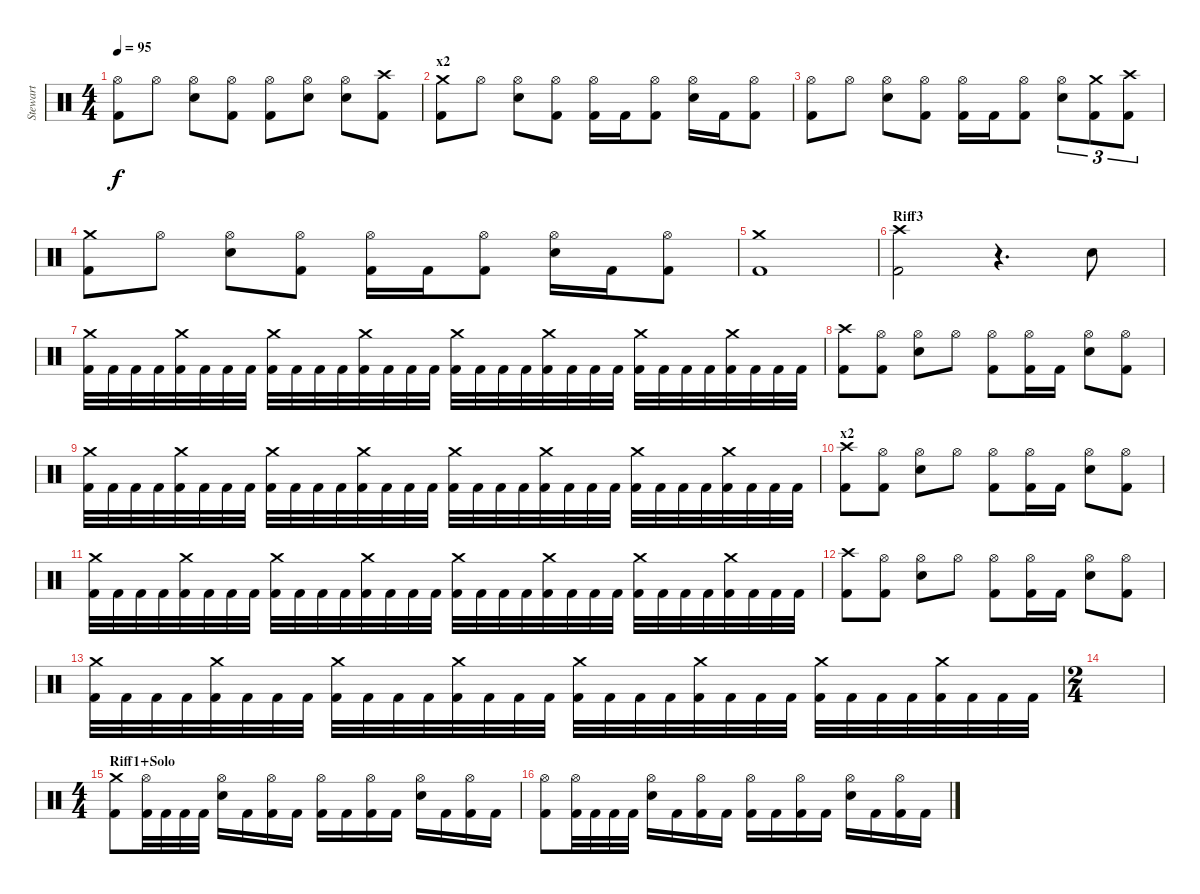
\track ("Stewart" "Stewart") {instrument percussion}
\staff {score}
\articulation defaults
\ts (4 4)
\tempo 95
\clef neutral
\ks c
("Hi-Hat (open)" "Kick (hit) 2").8{dy f} "Hi-Hat (open)".8 ("Hi-Hat (open)" "Electric Snare (hit)").8 ("Hi-Hat (open)" "Kick (hit) 2").8 ("Hi-Hat (open)" "Kick (hit) 2").8 ("Hi-Hat (open)" "Electric Snare (hit)").8 ("Hi-Hat (open)" "Electric Snare (hit)").8 ("Crash high (hit)" "Kick (hit) 2").8 |
\section ("" "x2")
("Crash medium (hit)" "Kick (hit) 2").8 "Hi-Hat (open)".8 ("Hi-Hat (open)" "Electric Snare (hit)").8 ("Hi-Hat (open)" "Kick (hit) 2").8 ("Hi-Hat (open)" "Kick (hit) 2").16 "Kick (hit) 2".16 ("Hi-Hat (open)" "Kick (hit) 2").8 ("Hi-Hat (open)" "Electric Snare (hit)").16 "Kick (hit) 2".16 ("Hi-Hat (open)" "Kick (hit) 2").8 |
("Hi-Hat (open)" "Kick (hit) 2").8 "Hi-Hat (open)".8 ("Hi-Hat (open)" "Electric Snare (hit)").8 ("Hi-Hat (open)" "Kick (hit) 2").8 ("Hi-Hat (open)" "Kick (hit) 2").16 "Kick (hit) 2".16 ("Hi-Hat (open)" "Kick (hit) 2").8 ("Hi-Hat (open)" "Electric Snare (hit)").8{tu (3 2)} ("Crash medium (hit)" "Kick (hit) 2").8{tu (3 2)} ("Crash high (hit)" "Kick (hit) 2").8{tu (3 2)} |
("Crash medium (hit)" "Kick (hit) 2").8 "Hi-Hat (open)".8 ("Hi-Hat (open)" "Electric Snare (hit)").8 ("Hi-Hat (open)" "Kick (hit) 2").8 ("Hi-Hat (open)" "Kick (hit) 2").16 "Kick (hit) 2".16 ("Hi-Hat (open)" "Kick (hit) 2").8 ("Hi-Hat (open)" "Electric Snare (hit)").16 "Kick (hit) 2".16 ("Hi-Hat (open)" "Kick (hit) 2").8 |
("Crash medium (hit)" "Kick (hit) 2").1 |
\section ("" "Riff3")
("Crash high (hit)" "Kick (hit) 2").2 r.4{d} "Electric Snare (hit)".8 |
("Crash medium (hit)" "Kick (hit) 2").32 "Kick (hit) 2".32 "Kick (hit) 2".32 "Kick (hit) 2".32 ("Crash medium (hit)" "Kick (hit) 2").32 "Kick (hit) 2".32 "Kick (hit) 2".32 "Kick (hit) 2".32 ("Crash medium (hit)" "Kick (hit) 2").32 "Kick (hit) 2".32 "Kick (hit) 2".32 "Kick (hit) 2".32 ("Crash medium (hit)" "Kick (hit) 2").32 "Kick (hit) 2".32 "Kick (hit) 2".32 "Kick (hit) 2".32 ("Crash medium (hit)" "Kick (hit) 2").32 "Kick (hit) 2".32 "Kick (hit) 2".32 "Kick (hit) 2".32 ("Crash medium (hit)" "Kick (hit) 2").32 "Kick (hit) 2".32 "Kick (hit) 2".32 "Kick (hit) 2".32 ("Crash medium (hit)" "Kick (hit) 2").32 "Kick (hit) 2".32 "Kick (hit) 2".32 "Kick (hit) 2".32 ("Crash medium (hit)" "Kick (hit) 2").32 "Kick (hit) 2".32 "Kick (hit) 2".32 "Kick (hit) 2".32 |
("Crash high (hit)" "Kick (hit) 2").8 ("Hi-Hat (open)" "Kick (hit) 2").8 ("Hi-Hat (open)" "Electric Snare (hit)").8 "Hi-Hat (open)".8 ("Hi-Hat (open)" "Kick (hit) 2").8 ("Hi-Hat (open)" "Kick (hit) 2").16 "Kick (hit) 2".16 ("Hi-Hat (open)" "Electric Snare (hit)").8 ("Hi-Hat (open)" "Kick (hit) 2").8 |
("Crash medium (hit)" "Kick (hit) 2").32 "Kick (hit) 2".32 "Kick (hit) 2".32 "Kick (hit) 2".32 ("Crash medium (hit)" "Kick (hit) 2").32 "Kick (hit) 2".32 "Kick (hit) 2".32 "Kick (hit) 2".32 ("Crash medium (hit)" "Kick (hit) 2").32 "Kick (hit) 2".32 "Kick (hit) 2".32 "Kick (hit) 2".32 ("Crash medium (hit)" "Kick (hit) 2").32 "Kick (hit) 2".32 "Kick (hit) 2".32 "Kick (hit) 2".32 ("Crash medium (hit)" "Kick (hit) 2").32 "Kick (hit) 2".32 "Kick (hit) 2".32 "Kick (hit) 2".32 ("Crash medium (hit)" "Kick (hit) 2").32 "Kick (hit) 2".32 "Kick (hit) 2".32 "Kick (hit) 2".32 ("Crash medium (hit)" "Kick (hit) 2").32 "Kick (hit) 2".32 "Kick (hit) 2".32 "Kick (hit) 2".32 ("Crash medium (hit)" "Kick (hit) 2").32 "Kick (hit) 2".32 "Kick (hit) 2".32 "Kick (hit) 2".32 |
\section ("" "x2")
("Crash high (hit)" "Kick (hit) 2").8 ("Hi-Hat (open)" "Kick (hit) 2").8 ("Hi-Hat (open)" "Electric Snare (hit)").8 "Hi-Hat (open)".8 ("Hi-Hat (open)" "Kick (hit) 2").8 ("Hi-Hat (open)" "Kick (hit) 2").16 "Kick (hit) 2".16 ("Hi-Hat (open)" "Electric Snare (hit)").8 ("Hi-Hat (open)" "Kick (hit) 2").8 |
("Crash medium (hit)" "Kick (hit) 2").32 "Kick (hit) 2".32 "Kick (hit) 2".32 "Kick (hit) 2".32 ("Crash medium (hit)" "Kick (hit) 2").32 "Kick (hit) 2".32 "Kick (hit) 2".32 "Kick (hit) 2".32 ("Crash medium (hit)" "Kick (hit) 2").32 "Kick (hit) 2".32 "Kick (hit) 2".32 "Kick (hit) 2".32 ("Crash medium (hit)" "Kick (hit) 2").32 "Kick (hit) 2".32 "Kick (hit) 2".32 "Kick (hit) 2".32 ("Crash medium (hit)" "Kick (hit) 2").32 "Kick (hit) 2".32 "Kick (hit) 2".32 "Kick (hit) 2".32 ("Crash medium (hit)" "Kick (hit) 2").32 "Kick (hit) 2".32 "Kick (hit) 2".32 "Kick (hit) 2".32 ("Crash medium (hit)" "Kick (hit) 2").32 "Kick (hit) 2".32 "Kick (hit) 2".32 "Kick (hit) 2".32 ("Crash medium (hit)" "Kick (hit) 2").32 "Kick (hit) 2".32 "Kick (hit) 2".32 "Kick (hit) 2".32 |
("Crash high (hit)" "Kick (hit) 2").8 ("Hi-Hat (open)" "Kick (hit) 2").8 ("Hi-Hat (open)" "Electric Snare (hit)").8 "Hi-Hat (open)".8 ("Hi-Hat (open)" "Kick (hit) 2").8 ("Hi-Hat (open)" "Kick (hit) 2").16 "Kick (hit) 2".16 ("Hi-Hat (open)" "Electric Snare (hit)").8 ("Hi-Hat (open)" "Kick (hit) 2").8 |
("Crash medium (hit)" "Kick (hit) 2").32 "Kick (hit) 2".32 "Kick (hit) 2".32 "Kick (hit) 2".32 ("Crash medium (hit)" "Kick (hit) 2").32 "Kick (hit) 2".32 "Kick (hit) 2".32 "Kick (hit) 2".32 ("Crash medium (hit)" "Kick (hit) 2").32 "Kick (hit) 2".32 "Kick (hit) 2".32 "Kick (hit) 2".32 ("Crash medium (hit)" "Kick (hit) 2").32 "Kick (hit) 2".32 "Kick (hit) 2".32 "Kick (hit) 2".32 ("Crash medium (hit)" "Kick (hit) 2").32 "Kick (hit) 2".32 "Kick (hit) 2".32 "Kick (hit) 2".32 ("Crash medium (hit)" "Kick (hit) 2").32 "Kick (hit) 2".32 "Kick (hit) 2".32 "Kick (hit) 2".32 ("Crash medium (hit)" "Kick (hit) 2").32 "Kick (hit) 2".32 "Kick (hit) 2".32 "Kick (hit) 2".32 ("Crash medium (hit)" "Kick (hit) 2").32 "Kick (hit) 2".32 "Kick (hit) 2".32 "Kick (hit) 2".32 |
\ts (2 4)
|
\ts (4 4)
\section ("" "Riff1+Solo")
("Crash medium (hit)" "Kick (hit) 2").8 ("Hi-Hat (open)" "Kick (hit) 2").32 "Kick (hit) 2".32 "Kick (hit) 2".32 "Kick (hit) 2".32 ("Hi-Hat (open)" "Electric Snare (hit)").16 "Kick (hit) 2".16 ("Hi-Hat (open)" "Kick (hit) 2").16 "Kick (hit) 2".16 ("Hi-Hat (open)" "Kick (hit) 2").16 "Kick (hit) 2".16 ("Hi-Hat (open)" "Kick (hit) 2").16 "Kick (hit) 2".16 ("Hi-Hat (open)" "Electric Snare (hit)").16 "Kick (hit) 2".16 ("Hi-Hat (open)" "Kick (hit) 2").16 "Kick (hit) 2".16 |
("Hi-Hat (open)" "Kick (hit) 2").8 ("Hi-Hat (open)" "Kick (hit) 2").32 "Kick (hit) 2".32 "Kick (hit) 2".32 "Kick (hit) 2".32 ("Hi-Hat (open)" "Electric Snare (hit)").16 "Kick (hit) 2".16 ("Hi-Hat (open)" "Kick (hit) 2").16 "Kick (hit) 2".16 ("Hi-Hat (open)" "Kick (hit) 2").16 "Kick (hit) 2".16 ("Hi-Hat (open)" "Kick (hit) 2").16 "Kick (hit) 2".16 ("Hi-Hat (open)" "Electric Snare (hit)").16 "Kick (hit) 2".16 ("Hi-Hat (open)" "Kick (hit) 2").16 "Kick (hit) 2".16
